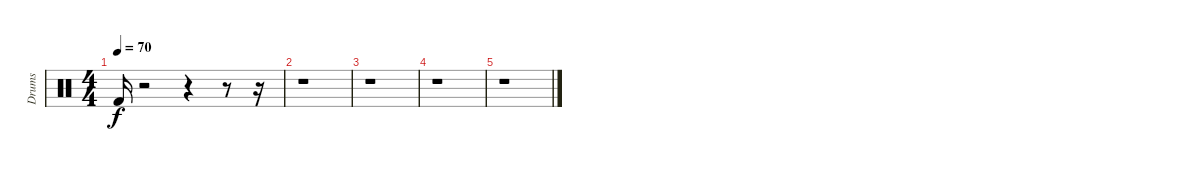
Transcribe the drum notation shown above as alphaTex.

\track ("Drums" "Drums") {instrument percussion}
\staff {score}
\articulation defaults
\ts (4 4)
\tempo 70
\clef neutral
\ks c "Kick (hit) 2".16{dy f}
r.2 r.4 r.8 r.16 |
r.1 |
r.1 |
r.1 |
r.1
